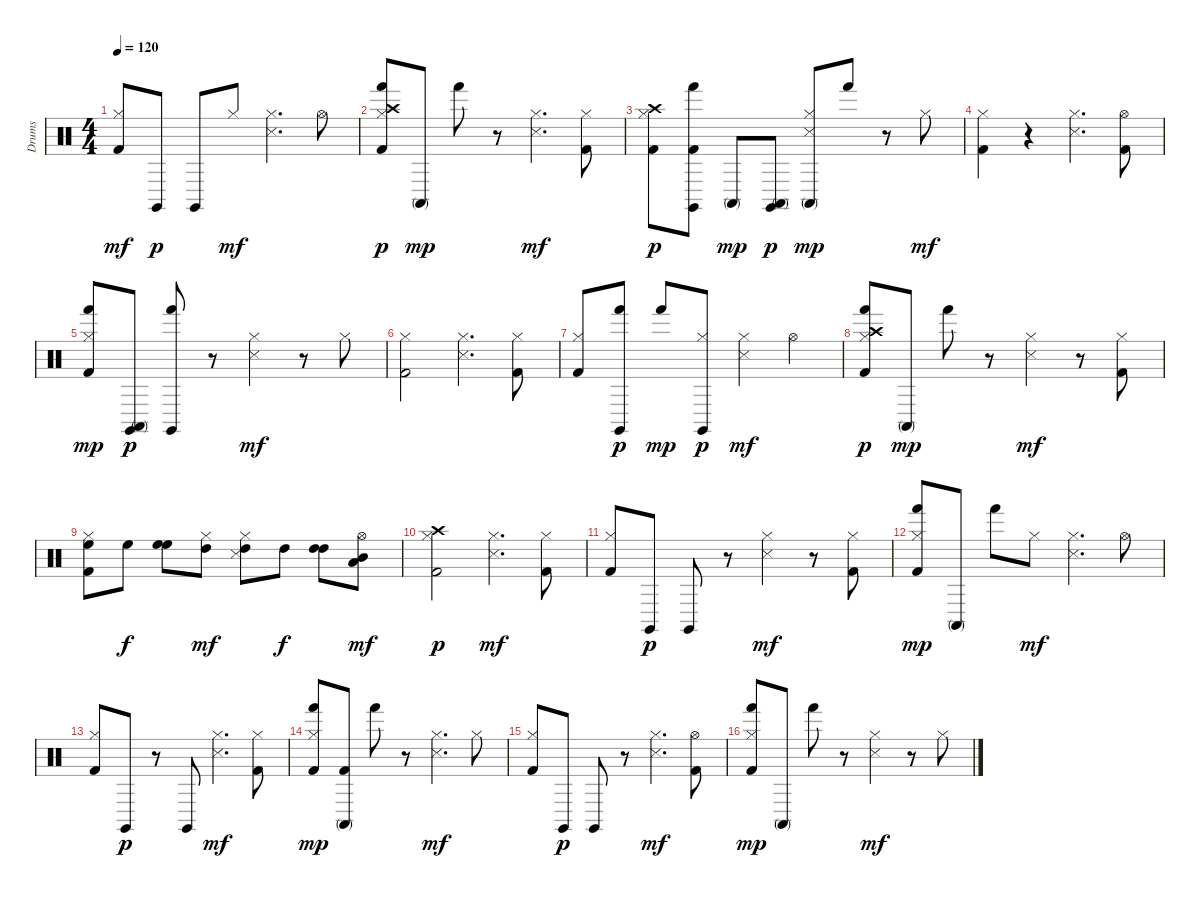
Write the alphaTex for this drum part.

\track ("Drums" "Drums") {instrument percussion}
\staff {score}
\articulation defaults
\ts (4 4)
\tempo 120
\clef neutral
\ks c
("Kick (hit) 2" "Hi-Hat (closed)").8{dy mf} "Claves (hit)".8{dy p} "Claves (hit)".8 "Hi-Hat (closed)".8{dy mf} ("Hi-Hat (closed)" "Snare (side stick) 3").4{d} "Hi-Hat (open)".8 |
("Kick (hit) 2" "Hi-Hat (closed)" "Hand (hit)" "Crash high (hit)").8{dy p} "Conga high (mute)".8{dy mp} "Hand (hit)".8 r.8 ("Hi-Hat (closed)" "Snare (side stick) 3").4{d dy mf} ("Kick (hit) 2" "Hi-Hat (closed)").8 |
("Kick (hit) 2" "Hi-Hat (closed)" "Crash high (hit)").8{dy p} ("Kick (hit) 2" "Hand (hit)" "Claves (hit)").8 "Conga high (mute)".8{dy mp} ("Conga high (mute)" "Claves (hit)").8{dy p} ("Hi-Hat (closed)" "Snare (side stick) 3" "Conga high (mute)").8{dy mp} "Hand (hit)".8 r.8 "Hi-Hat (closed)".8{dy mf} |
("Kick (hit) 2" "Hi-Hat (closed)").4 r.4 ("Hi-Hat (closed)" "Snare (side stick) 3").4{d} ("Kick (hit) 2" "Hi-Hat (open)").8 |
("Kick (hit) 2" "Hi-Hat (closed)" "Hand (hit)").8{dy mp} ("Conga high (mute)" "Claves (hit)").8{dy p} ("Hand (hit)" "Claves (hit)").8 r.8 ("Hi-Hat (closed)" "Snare (side stick) 3").4{dy mf} r.8 "Hi-Hat (closed)".8 |
("Kick (hit) 2" "Hi-Hat (closed)").2 ("Hi-Hat (closed)" "Snare (side stick) 3").4{d} ("Kick (hit) 2" "Hi-Hat (closed)").8 |
("Kick (hit) 2" "Hi-Hat (closed)").8 ("Hand (hit)" "Claves (hit)").8{dy p} "Hand (hit)".8{dy mp} ("Hi-Hat (closed)" "Claves (hit)").8{dy p} ("Hi-Hat (closed)" "Snare (side stick) 3").4{dy mf} "Hi-Hat (open)".4 |
("Kick (hit) 2" "Hi-Hat (closed)" "Hand (hit)" "Crash high (hit)").8{dy p} "Conga high (mute)".8{dy mp} "Hand (hit)".8 r.8 ("Hi-Hat (closed)" "Snare (side stick) 3").4{dy mf} r.8 ("Kick (hit) 2" "Hi-Hat (closed)").8 |
("Kick (hit) 2" "Hi-Hat (closed)" "High Floor Tom (hit)").8 "High Floor Tom (hit)".8{dy f} ("High Floor Tom (hit)" "High Floor Tom (hit)").8 ("Hi-Hat (closed)" "High Tom (hit)").8{dy mf} ("Hi-Hat (closed)" "Snare (side stick) 3" "High Tom (hit)").8 "High Tom (hit)".8{dy f} ("High Tom (hit)" "High Tom (hit)").8 ("Mid Tom (hit)" "Hi-Hat (open)" "Low Tom (hit)").8{dy mf} |
("Kick (hit) 2" "Hi-Hat (closed)" "Crash high (hit)").2{dy p} ("Hi-Hat (closed)" "Snare (side stick) 3").4{d dy mf} ("Kick (hit) 2" "Hi-Hat (closed)").8 |
("Kick (hit) 2" "Hi-Hat (closed)").8 "Claves (hit)".8{dy p} "Claves (hit)".8 r.8 ("Hi-Hat (closed)" "Snare (side stick) 3").4{dy mf} r.8 ("Kick (hit) 2" "Hi-Hat (closed)").8 |
("Kick (hit) 2" "Hi-Hat (closed)" "Hand (hit)").8{dy mp} "Conga high (mute)".8 "Hand (hit)".8 "Hi-Hat (closed)".8{dy mf} ("Hi-Hat (closed)" "Snare (side stick) 3").4{d} "Hi-Hat (open)".8 |
("Kick (hit) 2" "Hi-Hat (closed)").8 "Claves (hit)".8{dy p} r.8 "Claves (hit)".8 ("Hi-Hat (closed)" "Snare (side stick) 3").4{d dy mf} ("Kick (hit) 2" "Hi-Hat (closed)").8 |
("Kick (hit) 2" "Hi-Hat (closed)" "Hand (hit)").8{dy mp} ("Kick (hit) 2" "Conga high (mute)").8 "Hand (hit)".8 r.8 ("Hi-Hat (closed)" "Snare (side stick) 3").4{d dy mf} "Hi-Hat (closed)".8 |
("Kick (hit) 2" "Hi-Hat (closed)").8 "Claves (hit)".8{dy p} "Claves (hit)".8 r.8 ("Hi-Hat (closed)" "Snare (side stick) 3").4{d dy mf} ("Kick (hit) 2" "Hi-Hat (open)").8 |
("Kick (hit) 2" "Hi-Hat (closed)" "Hand (hit)").8{dy mp} "Conga high (mute)".8 "Hand (hit)".8 r.8 ("Hi-Hat (closed)" "Snare (side stick) 3").4{dy mf} r.8 "Hi-Hat (closed)".8
